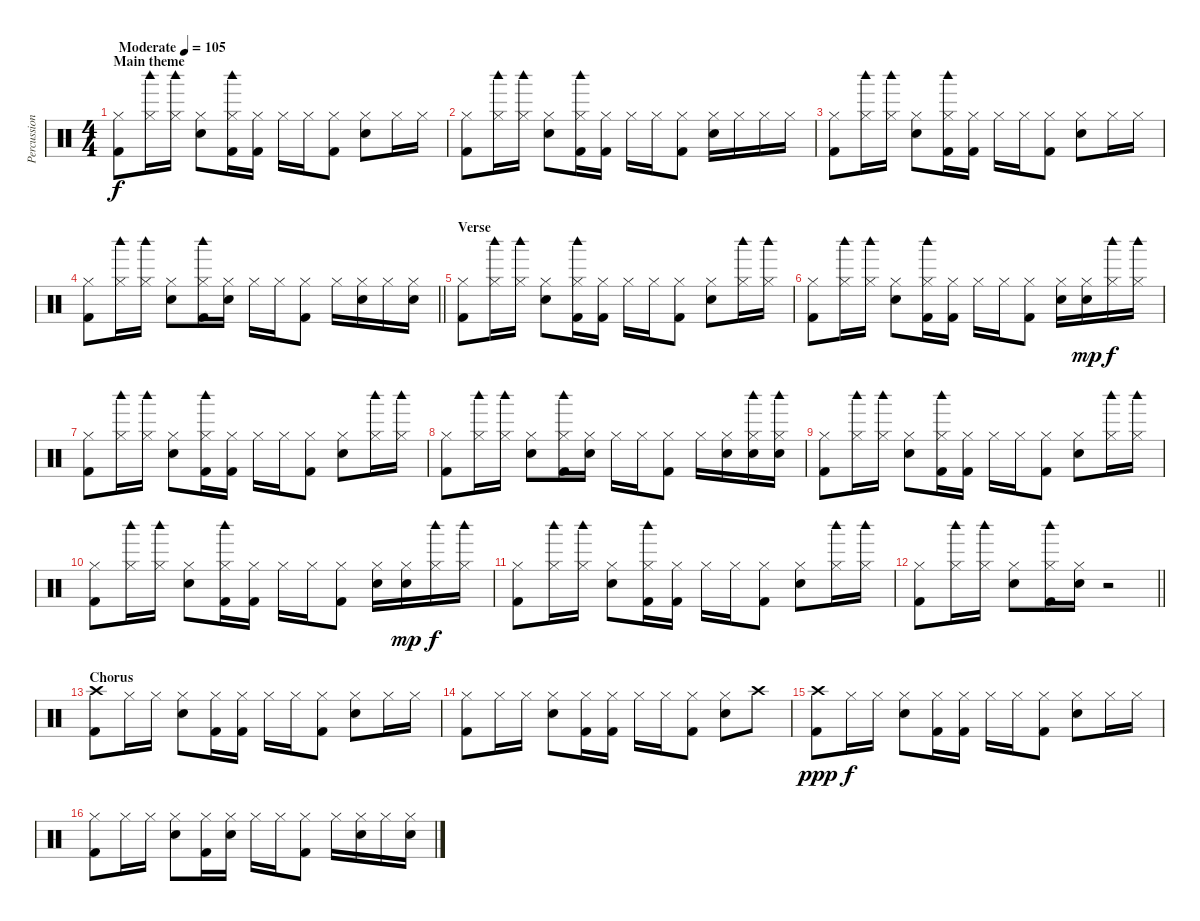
\track ("Percussion" "Percussion") {instrument percussion}
\staff {score}
\articulation defaults
\ts (4 4)
\section ("" "Main theme")
\tempo (105 "Moderate")
\clef neutral
\ks c
("Hi-Hat (closed)" "Kick (hit) 2").8{dy f} ("Hi-Hat (closed)" "Woodblock high (hit)").16 ("Hi-Hat (closed)" "Woodblock high (hit)").16 ("Hi-Hat (closed)" "Electric Snare (hit)").8 ("Hi-Hat (closed)" "Woodblock high (hit)" "Kick (hit) 2").16 ("Hi-Hat (closed)" "Kick (hit) 2").16 "Hi-Hat (closed)".16 "Hi-Hat (closed)".16 ("Hi-Hat (closed)" "Kick (hit) 2").8 ("Hi-Hat (closed)" "Electric Snare (hit)").8 "Hi-Hat (closed)".16 "Hi-Hat (closed)".16 |
("Hi-Hat (closed)" "Kick (hit) 2").8 ("Hi-Hat (closed)" "Woodblock high (hit)").16 ("Hi-Hat (closed)" "Woodblock high (hit)").16 ("Hi-Hat (closed)" "Electric Snare (hit)").8 ("Hi-Hat (closed)" "Woodblock high (hit)" "Kick (hit) 2").16 ("Hi-Hat (closed)" "Kick (hit) 2").16 "Hi-Hat (closed)".16 "Hi-Hat (closed)".16 ("Hi-Hat (closed)" "Kick (hit) 2").8 ("Hi-Hat (closed)" "Electric Snare (hit)").16 "Hi-Hat (closed)".16 "Hi-Hat (closed)".16 "Hi-Hat (closed)".16 |
("Hi-Hat (closed)" "Kick (hit) 2").8 ("Hi-Hat (closed)" "Woodblock high (hit)").16 ("Hi-Hat (closed)" "Woodblock high (hit)").16 ("Hi-Hat (closed)" "Electric Snare (hit)").8 ("Hi-Hat (closed)" "Woodblock high (hit)" "Kick (hit) 2").16 ("Hi-Hat (closed)" "Kick (hit) 2").16 "Hi-Hat (closed)".16 "Hi-Hat (closed)".16 ("Hi-Hat (closed)" "Kick (hit) 2").8 ("Hi-Hat (closed)" "Electric Snare (hit)").8 "Hi-Hat (closed)".16 "Hi-Hat (closed)".16 |
\barLineRight lightlight
("Hi-Hat (closed)" "Kick (hit) 2").8 ("Hi-Hat (closed)" "Woodblock high (hit)").16 ("Hi-Hat (closed)" "Woodblock high (hit)").16 ("Hi-Hat (closed)" "Electric Snare (hit)").8 ("Hi-Hat (closed)" "Woodblock high (hit)" "Kick (hit) 2").16 ("Hi-Hat (closed)" "Electric Snare (hit)").16 "Hi-Hat (closed)".16 "Hi-Hat (closed)".16 ("Hi-Hat (closed)" "Kick (hit) 2").8 "Hi-Hat (closed)".16 ("Hi-Hat (closed)" "Electric Snare (hit)").16 "Hi-Hat (closed)".16 ("Hi-Hat (closed)" "Electric Snare (hit)").16 |
\section ("" "Verse")
("Hi-Hat (closed)" "Kick (hit) 2").8 ("Hi-Hat (closed)" "Woodblock high (hit)").16 ("Hi-Hat (closed)" "Woodblock high (hit)").16 ("Hi-Hat (closed)" "Electric Snare (hit)").8 ("Hi-Hat (closed)" "Woodblock high (hit)" "Kick (hit) 2").16 ("Hi-Hat (closed)" "Kick (hit) 2").16 "Hi-Hat (closed)".16 "Hi-Hat (closed)".16 ("Hi-Hat (closed)" "Kick (hit) 2").8 ("Hi-Hat (closed)" "Electric Snare (hit)").8 ("Hi-Hat (closed)" "Woodblock high (hit)").16 ("Hi-Hat (closed)" "Woodblock high (hit)").16 |
("Hi-Hat (closed)" "Kick (hit) 2").8 ("Hi-Hat (closed)" "Woodblock high (hit)").16 ("Hi-Hat (closed)" "Woodblock high (hit)").16 ("Hi-Hat (closed)" "Electric Snare (hit)").8 ("Hi-Hat (closed)" "Woodblock high (hit)" "Kick (hit) 2").16 ("Hi-Hat (closed)" "Kick (hit) 2").16 "Hi-Hat (closed)".16 "Hi-Hat (closed)".16 ("Hi-Hat (closed)" "Kick (hit) 2").8 ("Hi-Hat (closed)" "Electric Snare (hit)").16 ("Hi-Hat (closed)" "Electric Snare (hit)").16{dy mp} ("Hi-Hat (closed)" "Woodblock high (hit)").16{dy f} ("Hi-Hat (closed)" "Woodblock high (hit)").16 |
("Hi-Hat (closed)" "Kick (hit) 2").8 ("Hi-Hat (closed)" "Woodblock high (hit)").16 ("Hi-Hat (closed)" "Woodblock high (hit)").16 ("Hi-Hat (closed)" "Electric Snare (hit)").8 ("Hi-Hat (closed)" "Woodblock high (hit)" "Kick (hit) 2").16 ("Hi-Hat (closed)" "Kick (hit) 2").16 "Hi-Hat (closed)".16 "Hi-Hat (closed)".16 ("Hi-Hat (closed)" "Kick (hit) 2").8 ("Hi-Hat (closed)" "Electric Snare (hit)").8 ("Hi-Hat (closed)" "Woodblock high (hit)").16 ("Hi-Hat (closed)" "Woodblock high (hit)").16 |
("Hi-Hat (closed)" "Kick (hit) 2").8 ("Hi-Hat (closed)" "Woodblock high (hit)").16 ("Hi-Hat (closed)" "Woodblock high (hit)").16 ("Hi-Hat (closed)" "Electric Snare (hit)").8 ("Hi-Hat (closed)" "Woodblock high (hit)" "Kick (hit) 2").16 ("Hi-Hat (closed)" "Electric Snare (hit)").16 "Hi-Hat (closed)".16 "Hi-Hat (closed)".16 ("Hi-Hat (closed)" "Kick (hit) 2").8 "Hi-Hat (closed)".16 ("Hi-Hat (closed)" "Electric Snare (hit)").16 ("Hi-Hat (closed)" "Woodblock high (hit)" "Electric Snare (hit)").16 ("Hi-Hat (closed)" "Woodblock high (hit)" "Electric Snare (hit)").16 |
("Hi-Hat (closed)" "Kick (hit) 2").8 ("Hi-Hat (closed)" "Woodblock high (hit)").16 ("Hi-Hat (closed)" "Woodblock high (hit)").16 ("Hi-Hat (closed)" "Electric Snare (hit)").8 ("Hi-Hat (closed)" "Woodblock high (hit)" "Kick (hit) 2").16 ("Hi-Hat (closed)" "Kick (hit) 2").16 "Hi-Hat (closed)".16 "Hi-Hat (closed)".16 ("Hi-Hat (closed)" "Kick (hit) 2").8 ("Hi-Hat (closed)" "Electric Snare (hit)").8 ("Hi-Hat (closed)" "Woodblock high (hit)").16 ("Hi-Hat (closed)" "Woodblock high (hit)").16 |
("Hi-Hat (closed)" "Kick (hit) 2").8 ("Hi-Hat (closed)" "Woodblock high (hit)").16 ("Hi-Hat (closed)" "Woodblock high (hit)").16 ("Hi-Hat (closed)" "Electric Snare (hit)").8 ("Hi-Hat (closed)" "Woodblock high (hit)" "Kick (hit) 2").16 ("Hi-Hat (closed)" "Kick (hit) 2").16 "Hi-Hat (closed)".16 "Hi-Hat (closed)".16 ("Hi-Hat (closed)" "Kick (hit) 2").8 ("Hi-Hat (closed)" "Electric Snare (hit)").16 ("Hi-Hat (closed)" "Electric Snare (hit)").16{dy mp} ("Hi-Hat (closed)" "Woodblock high (hit)").16{dy f} ("Hi-Hat (closed)" "Woodblock high (hit)").16 |
("Hi-Hat (closed)" "Kick (hit) 2").8 ("Hi-Hat (closed)" "Woodblock high (hit)").16 ("Hi-Hat (closed)" "Woodblock high (hit)").16 ("Hi-Hat (closed)" "Electric Snare (hit)").8 ("Hi-Hat (closed)" "Woodblock high (hit)" "Kick (hit) 2").16 ("Hi-Hat (closed)" "Kick (hit) 2").16 "Hi-Hat (closed)".16 "Hi-Hat (closed)".16 ("Hi-Hat (closed)" "Kick (hit) 2").8 ("Hi-Hat (closed)" "Electric Snare (hit)").8 ("Hi-Hat (closed)" "Woodblock high (hit)").16 ("Hi-Hat (closed)" "Woodblock high (hit)").16 |
\barLineRight lightlight
("Hi-Hat (closed)" "Kick (hit) 2").8 ("Hi-Hat (closed)" "Woodblock high (hit)").16 ("Hi-Hat (closed)" "Woodblock high (hit)").16 ("Hi-Hat (closed)" "Electric Snare (hit)").8 ("Hi-Hat (closed)" "Woodblock high (hit)" "Kick (hit) 2").16 ("Hi-Hat (closed)" "Electric Snare (hit)").16 r.2 |
\section ("" "Chorus")
("Crash high (hit)" "Kick (hit) 2").8 "Hi-Hat (closed)".16 "Hi-Hat (closed)".16 ("Hi-Hat (closed)" "Electric Snare (hit)").8 ("Hi-Hat (closed)" "Kick (hit) 2").16 ("Hi-Hat (closed)" "Kick (hit) 2").16 "Hi-Hat (closed)".16 "Hi-Hat (closed)".16 ("Hi-Hat (closed)" "Kick (hit) 2").8 ("Hi-Hat (closed)" "Electric Snare (hit)").8 "Hi-Hat (closed)".16 "Hi-Hat (closed)".16 |
("Hi-Hat (closed)" "Kick (hit) 2").8 "Hi-Hat (closed)".16 "Hi-Hat (closed)".16 ("Hi-Hat (closed)" "Electric Snare (hit)").8 ("Hi-Hat (closed)" "Kick (hit) 2").16 ("Hi-Hat (closed)" "Kick (hit) 2").16 "Hi-Hat (closed)".16 "Hi-Hat (closed)".16 ("Hi-Hat (closed)" "Kick (hit) 2").8 ("Hi-Hat (closed)" "Electric Snare (hit)").8 "Crash high (hit)".8 |
("Crash high (hit)" "Kick (hit) 2").8{dy ppp} "Hi-Hat (closed)".16{dy f} "Hi-Hat (closed)".16 ("Hi-Hat (closed)" "Electric Snare (hit)").8 ("Hi-Hat (closed)" "Kick (hit) 2").16 ("Hi-Hat (closed)" "Kick (hit) 2").16 "Hi-Hat (closed)".16 "Hi-Hat (closed)".16 ("Hi-Hat (closed)" "Kick (hit) 2").8 ("Hi-Hat (closed)" "Electric Snare (hit)").8 "Hi-Hat (closed)".16 "Hi-Hat (closed)".16 |
("Hi-Hat (closed)" "Kick (hit) 2").8 "Hi-Hat (closed)".16 "Hi-Hat (closed)".16 ("Hi-Hat (closed)" "Electric Snare (hit)").8 ("Hi-Hat (closed)" "Kick (hit) 2").16 ("Hi-Hat (closed)" "Electric Snare (hit)").16 "Hi-Hat (closed)".16 "Hi-Hat (closed)".16 ("Hi-Hat (closed)" "Kick (hit) 2").8 "Hi-Hat (closed)".16 ("Hi-Hat (closed)" "Electric Snare (hit)").16 "Hi-Hat (closed)".16 ("Hi-Hat (closed)" "Electric Snare (hit)").16
